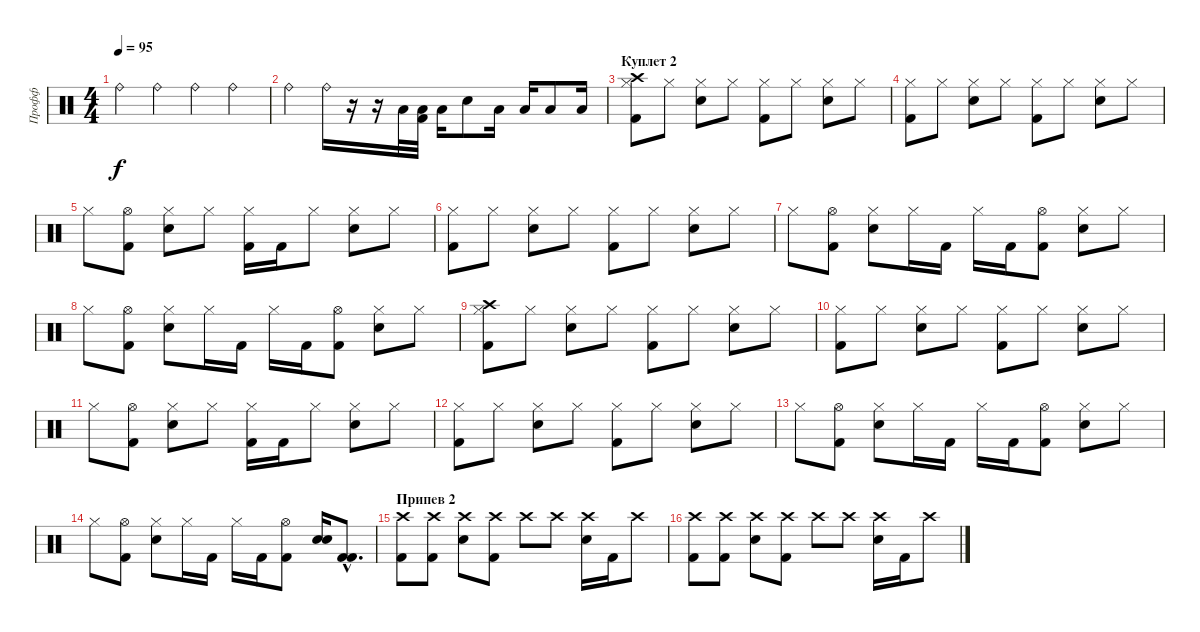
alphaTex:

\track ("Профф" "Профф") {instrument percussion}
\staff {score}
\articulation defaults
\ts (4 4)
\tempo 95
\clef neutral
\ks c "Ride (bell)".4{dy f} "Ride (bell)".4 "Ride (bell)".4 "Ride (bell)".4
|
"Ride (bell)".4 "Ride (bell)".16 r.16 r.16 "Low Tom (hit)".32 ("Low Tom (hit)" "Kick (hit) 2").32 "Low Tom (hit)".16 "Snare (hit) 2".8 "Low Tom (hit)".16 "Low Tom (hit)".16 "Low Tom (hit)".8 "Low Floor Tom (hit)".16 |
\section ("" "Куплет 2")
("Hi-Hat (closed)" "Crash high (hit)" "Kick (hit) 2").8 "Hi-Hat (closed)".8 ("Hi-Hat (closed)" "Snare (hit) 2").8 "Hi-Hat (closed)".8 ("Hi-Hat (closed)" "Kick (hit) 2").8 "Hi-Hat (closed)".8 ("Hi-Hat (closed)" "Snare (hit) 2").8 "Hi-Hat (closed)".8 |
("Hi-Hat (closed)" "Kick (hit) 2").8 "Hi-Hat (closed)".8 ("Hi-Hat (closed)" "Snare (hit) 2").8 "Hi-Hat (closed)".8 ("Hi-Hat (closed)" "Kick (hit) 2").8 "Hi-Hat (closed)".8 ("Hi-Hat (closed)" "Snare (hit) 2").8 "Hi-Hat (closed)".8 |
"Hi-Hat (closed)".8 ("Hi-Hat (open)" "Kick (hit) 2").8 ("Hi-Hat (closed)" "Snare (hit) 2").8 "Hi-Hat (closed)".8 ("Hi-Hat (closed)" "Kick (hit) 2").16 "Kick (hit) 2".16 "Hi-Hat (closed)".8 ("Hi-Hat (closed)" "Snare (hit) 2").8 "Hi-Hat (closed)".8 |
("Hi-Hat (closed)" "Kick (hit) 2").8 "Hi-Hat (closed)".8 ("Hi-Hat (closed)" "Snare (hit) 2").8 "Hi-Hat (closed)".8 ("Hi-Hat (closed)" "Kick (hit) 2").8 "Hi-Hat (closed)".8 ("Hi-Hat (closed)" "Snare (hit) 2").8 "Hi-Hat (closed)".8 |
"Hi-Hat (closed)".8 ("Hi-Hat (open)" "Kick (hit) 2").8 ("Hi-Hat (closed)" "Snare (hit) 2").8 "Hi-Hat (closed)".16 "Kick (hit) 2".16 "Hi-Hat (closed)".16 "Kick (hit) 2".16 ("Hi-Hat (open)" "Kick (hit) 2").8 ("Hi-Hat (closed)" "Snare (hit) 2").8 "Hi-Hat (closed)".8 |
"Hi-Hat (closed)".8 ("Hi-Hat (open)" "Kick (hit) 2").8 ("Hi-Hat (closed)" "Snare (hit) 2").8 "Hi-Hat (closed)".16 "Kick (hit) 2".16 "Hi-Hat (closed)".16 "Kick (hit) 2".16 ("Hi-Hat (open)" "Kick (hit) 2").8 ("Hi-Hat (closed)" "Snare (hit) 2").8 "Hi-Hat (closed)".8 |
("Hi-Hat (closed)" "Crash high (hit)" "Kick (hit) 2").8 "Hi-Hat (closed)".8 ("Hi-Hat (closed)" "Snare (hit) 2").8 "Hi-Hat (closed)".8 ("Hi-Hat (closed)" "Kick (hit) 2").8 "Hi-Hat (closed)".8 ("Hi-Hat (closed)" "Snare (hit) 2").8 "Hi-Hat (closed)".8 |
("Hi-Hat (closed)" "Kick (hit) 2").8 "Hi-Hat (closed)".8 ("Hi-Hat (closed)" "Snare (hit) 2").8 "Hi-Hat (closed)".8 ("Hi-Hat (closed)" "Kick (hit) 2").8 "Hi-Hat (closed)".8 ("Hi-Hat (closed)" "Snare (hit) 2").8 "Hi-Hat (closed)".8 |
"Hi-Hat (closed)".8 ("Hi-Hat (open)" "Kick (hit) 2").8 ("Hi-Hat (closed)" "Snare (hit) 2").8 "Hi-Hat (closed)".8 ("Hi-Hat (closed)" "Kick (hit) 2").16 "Kick (hit) 2".16 "Hi-Hat (closed)".8 ("Hi-Hat (closed)" "Snare (hit) 2").8 "Hi-Hat (closed)".8 |
("Hi-Hat (closed)" "Kick (hit) 2").8 "Hi-Hat (closed)".8 ("Hi-Hat (closed)" "Snare (hit) 2").8 "Hi-Hat (closed)".8 ("Hi-Hat (closed)" "Kick (hit) 2").8 "Hi-Hat (closed)".8 ("Hi-Hat (closed)" "Snare (hit) 2").8 "Hi-Hat (closed)".8 |
"Hi-Hat (closed)".8 ("Hi-Hat (open)" "Kick (hit) 2").8 ("Hi-Hat (closed)" "Snare (hit) 2").8 "Hi-Hat (closed)".16 "Kick (hit) 2".16 "Hi-Hat (closed)".16 "Kick (hit) 2".16 ("Hi-Hat (open)" "Kick (hit) 2").8 ("Hi-Hat (closed)" "Snare (hit) 2").8 "Hi-Hat (closed)".8 |
"Hi-Hat (closed)".8 ("Hi-Hat (open)" "Kick (hit) 2").8 ("Hi-Hat (closed)" "Snare (hit) 2").8 "Hi-Hat (closed)".16 "Kick (hit) 2".16 "Hi-Hat (closed)".16 "Kick (hit) 2".16 ("Hi-Hat (open)" "Kick (hit) 2").8 ("Snare (hit) 2" "Snare (hit) 2").16{bu 60} ("Kick (hit) 2"{hac} "Kick (hit) 2"{hac}).8{d} |
\section ("" "Припев 2")
("Crash high (hit)" "Kick (hit) 2").8 ("Crash high (hit)" "Kick (hit) 2").8 ("Crash high (hit)" "Snare (hit) 2").8 ("Crash high (hit)" "Kick (hit) 2").8 "Crash high (hit)".8 "Crash high (hit)".8 ("Crash high (hit)" "Snare (hit) 2").16 "Kick (hit) 2".16 "Crash high (hit)".8 |
("Crash high (hit)" "Kick (hit) 2").8 ("Crash high (hit)" "Kick (hit) 2").8 ("Crash high (hit)" "Snare (hit) 2").8 ("Crash high (hit)" "Kick (hit) 2").8 "Crash high (hit)".8 "Crash high (hit)".8 ("Crash high (hit)" "Snare (hit) 2").16 "Kick (hit) 2".16 "Crash high (hit)".8
